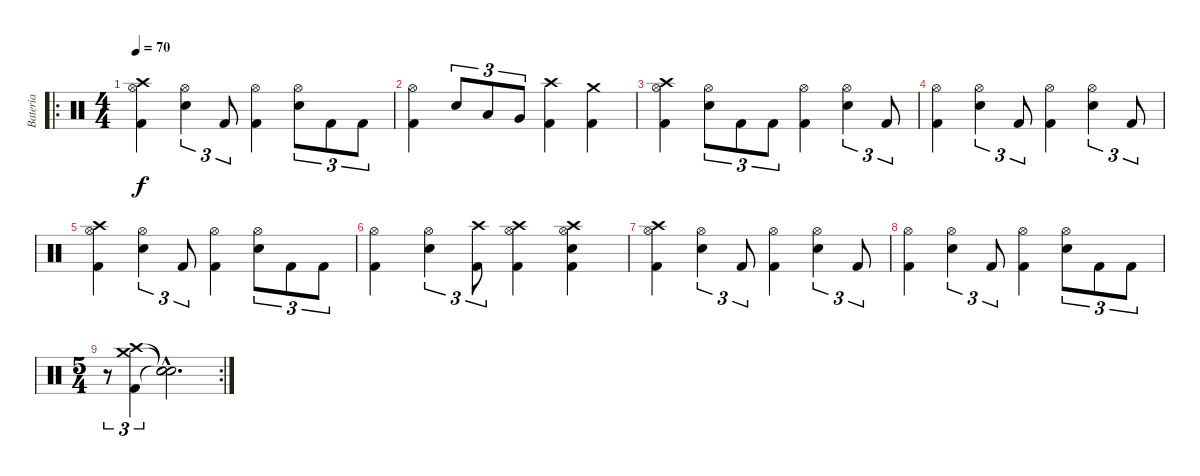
\track ("Bateria" "Bateria") {instrument percussion}
\staff {score}
\articulation defaults
\ro
\ts (4 4)
\tempo 70
\clef neutral
\ks c
("Hi-Hat (open)" "Kick (hit) 2" "Crash high (hit)").4{dy f} ("Hi-Hat (open)" "Snare (hit) 2").4{tu (3 2)} "Kick (hit) 2".8{tu (3 2)} ("Hi-Hat (open)" "Kick (hit) 2").4 ("Hi-Hat (open)" "Snare (hit) 2").8{tu (3 2)} "Kick (hit) 2".8{tu (3 2)} "Kick (hit) 2".8{tu (3 2)} |
("Hi-Hat (open)" "Kick (hit) 2").4 "Snare (hit) 2".8{tu (3 2)} "Low Tom (hit)".8{tu (3 2)} "Very Low Tom (hit)".8{tu (3 2)} ("Kick (hit) 2" "Crash high (hit)").4 ("Kick (hit) 2" "Crash medium (hit)").4 |
("Hi-Hat (open)" "Kick (hit) 2" "Crash high (hit)").4 ("Hi-Hat (open)" "Snare (hit) 2").8{tu (3 2)} "Kick (hit) 2".8{tu (3 2)} "Kick (hit) 2".8{tu (3 2)} ("Hi-Hat (open)" "Kick (hit) 2").4 ("Hi-Hat (open)" "Snare (hit) 2").4{tu (3 2)} "Kick (hit) 2".8{tu (3 2)} |
("Hi-Hat (open)" "Kick (hit) 2").4 ("Hi-Hat (open)" "Snare (hit) 2").4{tu (3 2)} "Kick (hit) 2".8{tu (3 2)} ("Hi-Hat (open)" "Kick (hit) 2").4 ("Hi-Hat (open)" "Snare (hit) 2").4{tu (3 2)} "Kick (hit) 2".8{tu (3 2)} |
("Hi-Hat (open)" "Kick (hit) 2" "Crash high (hit)").4 ("Hi-Hat (open)" "Snare (hit) 2").4{tu (3 2)} "Kick (hit) 2".8{tu (3 2)} ("Hi-Hat (open)" "Kick (hit) 2").4 ("Hi-Hat (open)" "Snare (hit) 2").8{tu (3 2)} "Kick (hit) 2".8{tu (3 2)} "Kick (hit) 2".8{tu (3 2)} |
("Hi-Hat (open)" "Kick (hit) 2").4 ("Hi-Hat (open)" "Snare (hit) 2").4{tu (3 2)} ("Kick (hit) 2" "Crash high (hit)").8{tu (3 2)} ("Hi-Hat (open)" "Kick (hit) 2" "Crash high (hit)").4 ("Hi-Hat (open)" "Snare (hit) 2" "Kick (hit) 2" "Crash high (hit)").4 |
("Hi-Hat (open)" "Kick (hit) 2" "Crash high (hit)").4 ("Hi-Hat (open)" "Snare (hit) 2").4{tu (3 2)} "Kick (hit) 2".8{tu (3 2)} ("Hi-Hat (open)" "Kick (hit) 2").4 ("Hi-Hat (open)" "Snare (hit) 2").4{tu (3 2)} "Kick (hit) 2".8{tu (3 2)} |
("Hi-Hat (open)" "Kick (hit) 2").4 ("Hi-Hat (open)" "Snare (hit) 2").4{tu (3 2)} "Kick (hit) 2".8{tu (3 2)} ("Hi-Hat (open)" "Kick (hit) 2").4 ("Hi-Hat (open)" "Snare (hit) 2").8{tu (3 2)} "Kick (hit) 2".8{tu (3 2)} "Kick (hit) 2".8{tu (3 2)} |
\rc 2
\ts (5 4)
r.8{tu (3 2)} ("Kick (hit) 2" "Crash high (hit)" "Crash medium (hit)").4{tu (3 2)} ("Snare (hit)"{hac t} "Snare (hit)"{hac t} "Snare (hit)"{hac t}).2{d}
